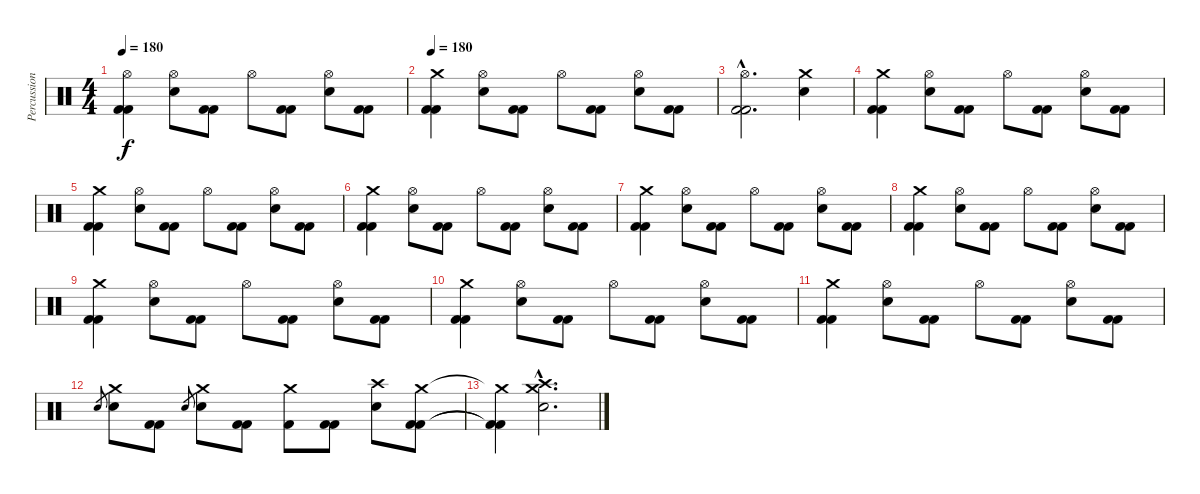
\track ("Percussioni" "Percussion") {instrument percussion}
\staff {score}
\articulation defaults
\ts (4 4)
\tempo 180
\clef neutral
\ks c
("Hi-Hat (open)" "Kick (hit) 2" "Kick (hit) 2").4{dy f} ("Hi-Hat (open)" "Electric Snare (hit)").8 ("Kick (hit) 2" "Kick (hit) 2").8 "Hi-Hat (open)".8 ("Kick (hit) 2" "Kick (hit) 2").8 ("Hi-Hat (open)" "Electric Snare (hit)").8 ("Kick (hit) 2" "Kick (hit) 2").8 |
\tempo 180
("Crash medium (hit)" "Kick (hit) 2" "Kick (hit) 2").4 ("Hi-Hat (open)" "Electric Snare (hit)").8 ("Kick (hit) 2" "Kick (hit) 2").8 "Hi-Hat (open)".8 ("Kick (hit) 2" "Kick (hit) 2").8 ("Hi-Hat (open)" "Electric Snare (hit)").8 ("Kick (hit) 2" "Kick (hit) 2").8 |
("Hi-Hat (open)"{hac} "Kick (hit) 2"{hac} "Kick (hit) 2"{hac}).2{d} ("Crash medium (hit)" "Electric Snare (hit)").4 |
("Crash medium (hit)" "Kick (hit) 2" "Kick (hit) 2").4 ("Hi-Hat (open)" "Electric Snare (hit)").8 ("Kick (hit) 2" "Kick (hit) 2").8 "Hi-Hat (open)".8 ("Kick (hit) 2" "Kick (hit) 2").8 ("Hi-Hat (open)" "Electric Snare (hit)").8 ("Kick (hit) 2" "Kick (hit) 2").8 |
("Crash medium (hit)" "Kick (hit) 2" "Kick (hit) 2").4 ("Hi-Hat (open)" "Electric Snare (hit)").8 ("Kick (hit) 2" "Kick (hit) 2").8 "Hi-Hat (open)".8 ("Kick (hit) 2" "Kick (hit) 2").8 ("Hi-Hat (open)" "Electric Snare (hit)").8 ("Kick (hit) 2" "Kick (hit) 2").8 |
("Crash medium (hit)" "Kick (hit) 2" "Kick (hit) 2").4 ("Hi-Hat (open)" "Electric Snare (hit)").8 ("Kick (hit) 2" "Kick (hit) 2").8 "Hi-Hat (open)".8 ("Kick (hit) 2" "Kick (hit) 2").8 ("Hi-Hat (open)" "Electric Snare (hit)").8 ("Kick (hit) 2" "Kick (hit) 2").8 |
("Crash medium (hit)" "Kick (hit) 2" "Kick (hit) 2").4 ("Hi-Hat (open)" "Electric Snare (hit)").8 ("Kick (hit) 2" "Kick (hit) 2").8 "Hi-Hat (open)".8 ("Kick (hit) 2" "Kick (hit) 2").8 ("Hi-Hat (open)" "Electric Snare (hit)").8 ("Kick (hit) 2" "Kick (hit) 2").8 |
("Crash medium (hit)" "Kick (hit) 2" "Kick (hit) 2").4 ("Hi-Hat (open)" "Electric Snare (hit)").8 ("Kick (hit) 2" "Kick (hit) 2").8 "Hi-Hat (open)".8 ("Kick (hit) 2" "Kick (hit) 2").8 ("Hi-Hat (open)" "Electric Snare (hit)").8 ("Kick (hit) 2" "Kick (hit) 2").8 |
("Crash medium (hit)" "Kick (hit) 2" "Kick (hit) 2").4 ("Hi-Hat (open)" "Electric Snare (hit)").8 ("Kick (hit) 2" "Kick (hit) 2").8 "Hi-Hat (open)".8 ("Kick (hit) 2" "Kick (hit) 2").8 ("Hi-Hat (open)" "Electric Snare (hit)").8 ("Kick (hit) 2" "Kick (hit) 2").8 |
("Crash medium (hit)" "Kick (hit) 2" "Kick (hit) 2").4 ("Hi-Hat (open)" "Electric Snare (hit)").8 ("Kick (hit) 2" "Kick (hit) 2").8 "Hi-Hat (open)".8 ("Kick (hit) 2" "Kick (hit) 2").8 ("Hi-Hat (open)" "Electric Snare (hit)").8 ("Kick (hit) 2" "Kick (hit) 2").8 |
("Crash medium (hit)" "Kick (hit) 2" "Kick (hit) 2").4 ("Hi-Hat (open)" "Electric Snare (hit)").8 ("Kick (hit) 2" "Kick (hit) 2").8 "Hi-Hat (open)".8 ("Kick (hit) 2" "Kick (hit) 2").8 ("Hi-Hat (open)" "Electric Snare (hit)").8 ("Kick (hit) 2" "Kick (hit) 2").8 |
"Electric Snare (hit)".8{gr} ("Crash medium (hit)" "Electric Snare (hit)").8 ("Kick (hit) 2" "Kick (hit) 2").8 "Electric Snare (hit)".8{gr} ("Crash medium (hit)" "Electric Snare (hit)").8 ("Kick (hit) 2" "Kick (hit) 2").8 ("Crash medium (hit)" "Kick (hit) 2").8 ("Kick (hit) 2" "Kick (hit) 2").8 ("Crash high (hit)" "Electric Snare (hit)").8 ("Crash medium (hit)" "Kick (hit) 2" "Kick (hit) 2").8 |
("Crash medium (hit)"{t} "Kick (hit) 2"{t} "Kick (hit) 2"{t}).4 ("Crash high (hit)"{hac} "Crash medium (hit)"{hac} "Electric Snare (hit)"{hac}).2{d}
